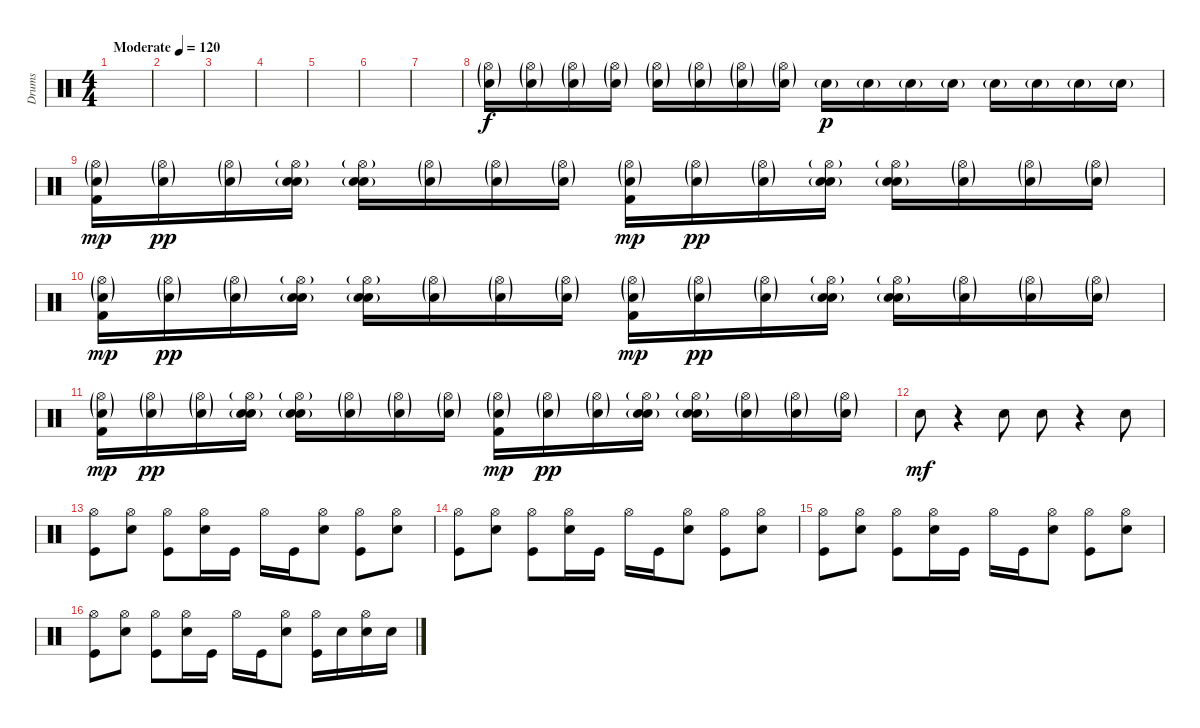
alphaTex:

\track ("Drums" "Drums") {instrument percussion}
\staff {score}
\articulation defaults
\ts (4 4)
\tempo (120 "Moderate")
\clef neutral
\ks c
|
|
|
|
|
|
|
("Snare (hit) 2"{g} "Hi-Hat (open)"{g}).16 ("Snare (hit) 2"{g} "Hi-Hat (open)"{g}).16 ("Snare (hit) 2"{g} "Hi-Hat (open)"{g}).16 ("Snare (hit) 2"{g} "Hi-Hat (open)"{g}).16 ("Snare (hit) 2"{g} "Hi-Hat (open)"{g}).16 ("Snare (hit) 2"{g} "Hi-Hat (open)"{g}).16 ("Electric Snare (hit)"{g} "Hi-Hat (open)"{g}).16 ("Electric Snare (hit)"{g} "Hi-Hat (open)"{g}).16 "Electric Snare (hit)"{g}.16{dy p} "Electric Snare (hit)"{g}.16 "Electric Snare (hit)"{g}.16 "Electric Snare (hit)"{g}.16 "Electric Snare (hit)"{g}.16 "Electric Snare (hit)"{g}.16 "Electric Snare (hit)"{g}.16 "Electric Snare (hit)"{g}.16 |
("Snare (hit) 2"{g} "Hi-Hat (open)"{g} "Kick (hit) 2").16{dy mp} ("Snare (hit) 2"{g} "Hi-Hat (open)"{g}).16{dy pp} ("Snare (hit) 2"{g} "Hi-Hat (open)"{g}).16 ("Electric Snare (hit)" "Snare (hit) 2"{g} "Hi-Hat (open)"{g}).16 ("Electric Snare (hit)" "Snare (hit) 2"{g} "Hi-Hat (open)"{g}).16 ("Snare (hit) 2"{g} "Hi-Hat (open)"{g}).16 ("Snare (hit) 2"{g} "Hi-Hat (open)"{g}).16 ("Snare (hit) 2"{g} "Hi-Hat (open)"{g}).16 ("Snare (hit) 2"{g} "Hi-Hat (open)"{g} "Kick (hit) 2").16{dy mp} ("Snare (hit) 2"{g} "Hi-Hat (open)"{g}).16{dy pp} ("Snare (hit) 2"{g} "Hi-Hat (open)"{g}).16 ("Electric Snare (hit)" "Snare (hit) 2"{g} "Hi-Hat (open)"{g}).16 ("Electric Snare (hit)" "Snare (hit) 2"{g} "Hi-Hat (open)"{g}).16 ("Snare (hit) 2"{g} "Hi-Hat (open)"{g}).16 ("Snare (hit) 2"{g} "Hi-Hat (open)"{g}).16 ("Snare (hit) 2"{g} "Hi-Hat (open)"{g}).16 |
("Snare (hit) 2"{g} "Hi-Hat (open)"{g} "Kick (hit) 2").16{dy mp} ("Snare (hit) 2"{g} "Hi-Hat (open)"{g}).16{dy pp} ("Snare (hit) 2"{g} "Hi-Hat (open)"{g}).16 ("Electric Snare (hit)" "Snare (hit) 2"{g} "Hi-Hat (open)"{g}).16 ("Electric Snare (hit)" "Snare (hit) 2"{g} "Hi-Hat (open)"{g}).16 ("Snare (hit) 2"{g} "Hi-Hat (open)"{g}).16 ("Snare (hit) 2"{g} "Hi-Hat (open)"{g}).16 ("Snare (hit) 2"{g} "Hi-Hat (open)"{g}).16 ("Snare (hit) 2"{g} "Hi-Hat (open)"{g} "Kick (hit) 2").16{dy mp} ("Snare (hit) 2"{g} "Hi-Hat (open)"{g}).16{dy pp} ("Snare (hit) 2"{g} "Hi-Hat (open)"{g}).16 ("Electric Snare (hit)" "Snare (hit) 2"{g} "Hi-Hat (open)"{g}).16 ("Electric Snare (hit)" "Snare (hit) 2"{g} "Hi-Hat (open)"{g}).16 ("Snare (hit) 2"{g} "Hi-Hat (open)"{g}).16 ("Snare (hit) 2"{g} "Hi-Hat (open)"{g}).16 ("Snare (hit) 2"{g} "Hi-Hat (open)"{g}).16 |
("Snare (hit) 2"{g} "Hi-Hat (open)"{g} "Kick (hit) 2").16{dy mp} ("Snare (hit) 2"{g} "Hi-Hat (open)"{g}).16{dy pp} ("Snare (hit) 2"{g} "Hi-Hat (open)"{g}).16 ("Electric Snare (hit)" "Snare (hit) 2"{g} "Hi-Hat (open)"{g}).16 ("Electric Snare (hit)" "Snare (hit) 2"{g} "Hi-Hat (open)"{g}).16 ("Snare (hit) 2"{g} "Hi-Hat (open)"{g}).16 ("Snare (hit) 2"{g} "Hi-Hat (open)"{g}).16 ("Snare (hit) 2"{g} "Hi-Hat (open)"{g}).16 ("Snare (hit) 2"{g} "Hi-Hat (open)"{g} "Kick (hit) 2").16{dy mp} ("Snare (hit) 2"{g} "Hi-Hat (open)"{g}).16{dy pp} ("Snare (hit) 2"{g} "Hi-Hat (open)"{g}).16 ("Electric Snare (hit)" "Snare (hit) 2"{g} "Hi-Hat (open)"{g}).16 ("Electric Snare (hit)" "Snare (hit) 2"{g} "Hi-Hat (open)"{g}).16 ("Snare (hit) 2"{g} "Hi-Hat (open)"{g}).16 ("Snare (hit) 2"{g} "Hi-Hat (open)"{g}).16 ("Snare (hit) 2"{g} "Hi-Hat (open)"{g}).16 |
"Electric Snare (hit)".8{dy mf} r.4 "Electric Snare (hit)".8 "Electric Snare (hit)".8 r.4 "Electric Snare (hit)".8 |
("Kick (hit)" "Hi-Hat (open)").8 ("Electric Snare (hit)" "Hi-Hat (open)").8 ("Kick (hit)" "Hi-Hat (open)").8 ("Electric Snare (hit)" "Hi-Hat (open)").16 "Kick (hit)".16 "Hi-Hat (open)".16 "Kick (hit)".16 ("Electric Snare (hit)" "Hi-Hat (open)").8 ("Kick (hit)" "Hi-Hat (open)").8 ("Electric Snare (hit)" "Hi-Hat (open)").8 |
("Kick (hit)" "Hi-Hat (open)").8 ("Electric Snare (hit)" "Hi-Hat (open)").8 ("Kick (hit)" "Hi-Hat (open)").8 ("Electric Snare (hit)" "Hi-Hat (open)").16 "Kick (hit)".16 "Hi-Hat (open)".16 "Kick (hit)".16 ("Electric Snare (hit)" "Hi-Hat (open)").8 ("Kick (hit)" "Hi-Hat (open)").8 ("Electric Snare (hit)" "Hi-Hat (open)").8 |
("Kick (hit)" "Hi-Hat (open)").8 ("Electric Snare (hit)" "Hi-Hat (open)").8 ("Kick (hit)" "Hi-Hat (open)").8 ("Electric Snare (hit)" "Hi-Hat (open)").16 "Kick (hit)".16 "Hi-Hat (open)".16 "Kick (hit)".16 ("Electric Snare (hit)" "Hi-Hat (open)").8 ("Kick (hit)" "Hi-Hat (open)").8 ("Electric Snare (hit)" "Hi-Hat (open)").8 |
("Kick (hit)" "Hi-Hat (open)").8 ("Electric Snare (hit)" "Hi-Hat (open)").8 ("Kick (hit)" "Hi-Hat (open)").8 ("Electric Snare (hit)" "Hi-Hat (open)").16 "Kick (hit)".16 "Hi-Hat (open)".16 "Kick (hit)".16 ("Electric Snare (hit)" "Hi-Hat (open)").8 ("Kick (hit)" "Hi-Hat (open)").16 "Electric Snare (hit)".16 ("Electric Snare (hit)" "Hi-Hat (open)").16 "Electric Snare (hit)".16
